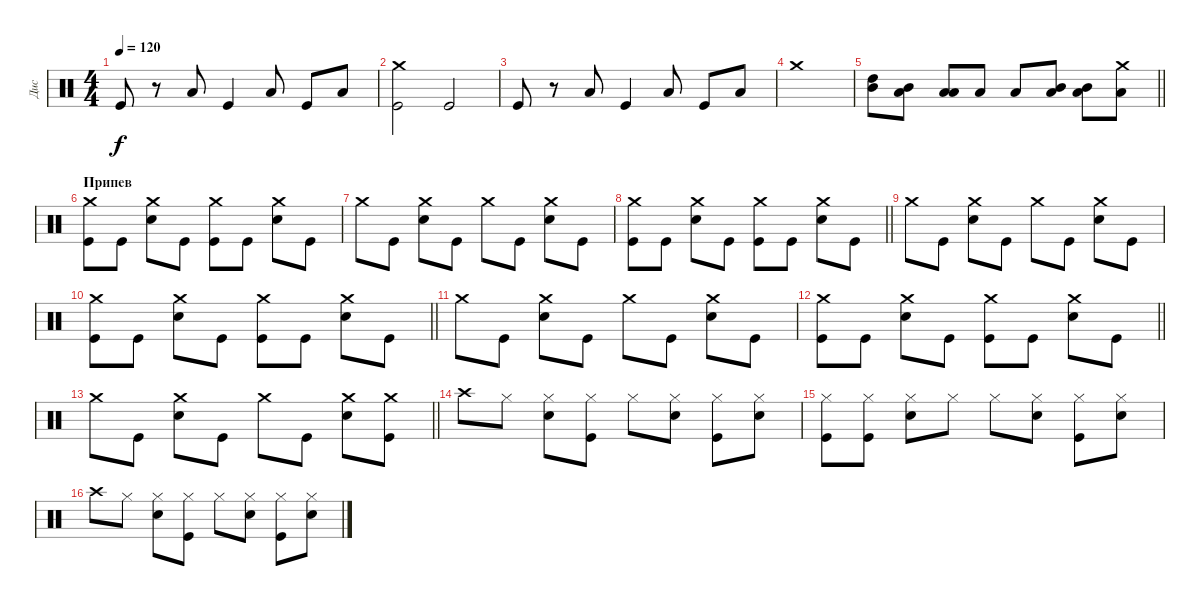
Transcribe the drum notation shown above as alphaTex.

\track ("Дис" "Дис") {instrument percussion}
\staff {score}
\articulation defaults
\ts (4 4)
\tempo 120
\clef neutral
\ks c "Kick (hit)".8{dy f}
r.8 "Low Tom (hit)".8 "Kick (hit)".4 "Low Tom (hit)".8 "Kick (hit)".8 "Low Tom (hit)".8 |
("Kick (hit)" "Crash medium (hit)").2 "Kick (hit)".2 |
"Kick (hit)".8 r.8 "Low Tom (hit)".8 "Kick (hit)".4 "Low Tom (hit)".8 "Kick (hit)".8 "Low Tom (hit)".8 |
"Crash medium (hit)".1 |
\barLineRight lightlight
("High Tom (hit)" "Mid Tom (hit)").8 ("Mid Tom (hit)" "Low Tom (hit)").8 ("Low Tom (hit)" "Low Tom (hit)").8 "Low Tom (hit)".8 "Low Tom (hit)".8 ("Mid Tom (hit)" "Low Tom (hit)").8 ("Mid Tom (hit)" "Low Tom (hit)").8 ("Crash medium (hit)" "Low Tom (hit)").8 |
\section ("" "Припев")
("Crash medium (hit)" "Kick (hit)").8 "Kick (hit)".8 ("Crash medium (hit)" "Electric Snare (hit)").8 "Kick (hit)".8 ("Crash medium (hit)" "Kick (hit)").8 "Kick (hit)".8 ("Crash medium (hit)" "Electric Snare (hit)").8 "Kick (hit)".8 |
"Crash medium (hit)".8 "Kick (hit)".8 ("Crash medium (hit)" "Electric Snare (hit)").8 "Kick (hit)".8 "Crash medium (hit)".8 "Kick (hit)".8 ("Crash medium (hit)" "Electric Snare (hit)").8 "Kick (hit)".8 |
\barLineRight lightlight
("Crash medium (hit)" "Kick (hit)").8 "Kick (hit)".8 ("Crash medium (hit)" "Electric Snare (hit)").8 "Kick (hit)".8 ("Crash medium (hit)" "Kick (hit)").8 "Kick (hit)".8 ("Crash medium (hit)" "Electric Snare (hit)").8 "Kick (hit)".8 |
"Crash medium (hit)".8 "Kick (hit)".8 ("Crash medium (hit)" "Electric Snare (hit)").8 "Kick (hit)".8 "Crash medium (hit)".8 "Kick (hit)".8 ("Crash medium (hit)" "Electric Snare (hit)").8 "Kick (hit)".8 |
\barLineRight lightlight
("Crash medium (hit)" "Kick (hit)").8 "Kick (hit)".8 ("Crash medium (hit)" "Electric Snare (hit)").8 "Kick (hit)".8 ("Crash medium (hit)" "Kick (hit)").8 "Kick (hit)".8 ("Crash medium (hit)" "Electric Snare (hit)").8 "Kick (hit)".8 |
"Crash medium (hit)".8 "Kick (hit)".8 ("Crash medium (hit)" "Electric Snare (hit)").8 "Kick (hit)".8 "Crash medium (hit)".8 "Kick (hit)".8 ("Crash medium (hit)" "Electric Snare (hit)").8 "Kick (hit)".8 |
\barLineRight lightlight
("Crash medium (hit)" "Kick (hit)").8 "Kick (hit)".8 ("Crash medium (hit)" "Electric Snare (hit)").8 "Kick (hit)".8 ("Crash medium (hit)" "Kick (hit)").8 "Kick (hit)".8 ("Crash medium (hit)" "Electric Snare (hit)").8 "Kick (hit)".8 |
\barLineRight lightlight "Crash medium (hit)".8 "Kick (hit)".8
("Crash medium (hit)" "Electric Snare (hit)").8 "Kick (hit)".8 "Crash medium (hit)".8 "Kick (hit)".8 ("Crash medium (hit)" "Electric Snare (hit)").8 ("Crash medium (hit)" "Kick (hit)").8 |
"Crash high (hit)".8 "Hi-Hat (closed)".8 ("Hi-Hat (closed)" "Snare (hit) 2").8 ("Hi-Hat (closed)" "Kick (hit)").8 "Hi-Hat (closed)".8 ("Hi-Hat (closed)" "Snare (hit) 2").8 ("Hi-Hat (closed)" "Kick (hit)").8 ("Hi-Hat (closed)" "Snare (hit) 2").8 |
("Hi-Hat (closed)" "Kick (hit)").8 ("Hi-Hat (closed)" "Kick (hit)").8 ("Hi-Hat (closed)" "Snare (hit) 2").8 "Hi-Hat (closed)".8 "Hi-Hat (closed)".8 ("Hi-Hat (closed)" "Snare (hit) 2").8 ("Hi-Hat (closed)" "Kick (hit)").8 ("Hi-Hat (closed)" "Snare (hit) 2").8 |
"Crash high (hit)".8 "Hi-Hat (closed)".8 ("Hi-Hat (closed)" "Snare (hit) 2").8 ("Hi-Hat (closed)" "Kick (hit)").8 "Hi-Hat (closed)".8 ("Hi-Hat (closed)" "Snare (hit) 2").8 ("Hi-Hat (closed)" "Kick (hit)").8 ("Hi-Hat (closed)" "Snare (hit) 2").8
